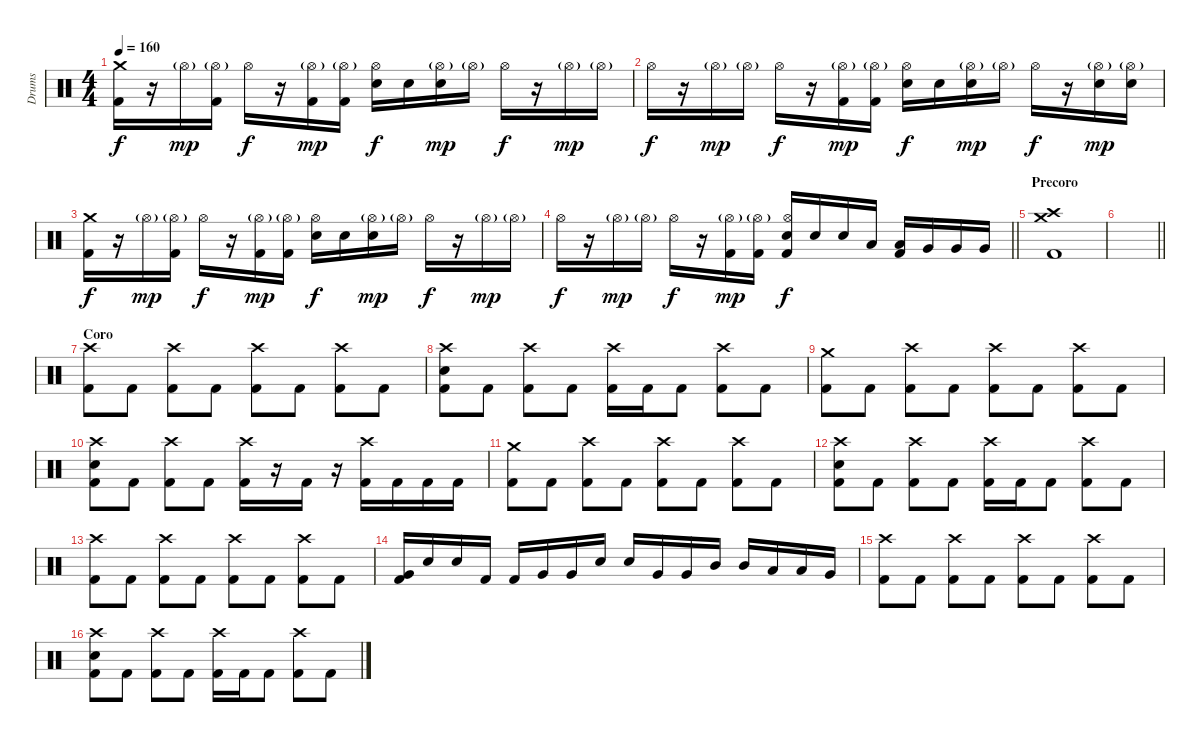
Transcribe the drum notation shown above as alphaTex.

\track ("Drums" "Drums") {instrument percussion}
\staff {score}
\articulation defaults
\ts (4 4)
\tempo 160
\clef neutral
\ks c
("Crash medium (hit)" "Kick (hit) 2").16{dy f} r.16 "Hi-Hat (open)"{g}.16{dy mp} ("Hi-Hat (open)"{g} "Kick (hit) 2").16 "Hi-Hat (open)".16{dy f} r.16 ("Hi-Hat (open)"{g} "Kick (hit) 2").16{dy mp} ("Hi-Hat (open)"{g} "Kick (hit) 2").16 ("Hi-Hat (open)" "Electric Snare (hit)").16{dy f} "Electric Snare (hit)".16 ("Hi-Hat (open)"{g} "Electric Snare (hit)").16{dy mp} "Hi-Hat (open)"{g}.16 "Hi-Hat (open)".16{dy f} r.16 "Hi-Hat (open)"{g}.16{dy mp} "Hi-Hat (open)"{g}.16 |
"Hi-Hat (open)".16{dy f} r.16 "Hi-Hat (open)"{g}.16{dy mp} "Hi-Hat (open)"{g}.16 "Hi-Hat (open)".16{dy f} r.16 ("Hi-Hat (open)"{g} "Kick (hit) 2").16{dy mp} ("Hi-Hat (open)"{g} "Kick (hit) 2").16 ("Hi-Hat (open)" "Electric Snare (hit)").16{dy f} "Electric Snare (hit)".16 ("Hi-Hat (open)"{g} "Electric Snare (hit)").16{dy mp} "Hi-Hat (open)"{g}.16 "Hi-Hat (open)".16{dy f} r.16 ("Hi-Hat (open)"{g} "Electric Snare (hit)").16{dy mp} ("Hi-Hat (open)"{g} "Electric Snare (hit)").16 |
("Crash medium (hit)" "Kick (hit) 2").16{dy f} r.16 "Hi-Hat (open)"{g}.16{dy mp} ("Hi-Hat (open)"{g} "Kick (hit) 2").16 "Hi-Hat (open)".16{dy f} r.16 ("Hi-Hat (open)"{g} "Kick (hit) 2").16{dy mp} ("Hi-Hat (open)"{g} "Kick (hit) 2").16 ("Hi-Hat (open)" "Electric Snare (hit)").16{dy f} "Electric Snare (hit)".16 ("Hi-Hat (open)"{g} "Electric Snare (hit)").16{dy mp} "Hi-Hat (open)"{g}.16 "Hi-Hat (open)".16{dy f} r.16 "Hi-Hat (open)"{g}.16{dy mp} "Hi-Hat (open)"{g}.16 |
\barLineRight lightlight "Hi-Hat (open)".16{dy f}
r.16 "Hi-Hat (open)"{g}.16{dy mp} "Hi-Hat (open)"{g}.16 "Hi-Hat (open)".16{dy f} r.16 ("Hi-Hat (open)"{g} "Kick (hit) 2").16{dy mp} ("Hi-Hat (open)"{g} "Kick (hit) 2").16 ("Hi-Hat (open)" "Electric Snare (hit)" "Kick (hit) 2").16{dy f} "Electric Snare (hit)".16 "Electric Snare (hit)".16 "Low Tom (hit)".16 ("Low Tom (hit)" "Kick (hit) 2").16 "Very Low Tom (hit)".16 "Very Low Tom (hit)".16 "Very Low Tom (hit)".16 |
\section ("" "Precoro")
("Crash medium (hit)" "Crash high (hit)" "Kick (hit) 2").1 |
\barLineRight lightlight
|
\section ("" "Coro")
("Crash high (hit)" "Kick (hit) 2").8 "Kick (hit) 2".8 ("Crash high (hit)" "Kick (hit) 2").8 "Kick (hit) 2".8 ("Crash high (hit)" "Kick (hit) 2").8 "Kick (hit) 2".8 ("Crash high (hit)" "Kick (hit) 2").8 "Kick (hit) 2".8 |
("Crash high (hit)" "Electric Snare (hit)" "Kick (hit) 2").8 "Kick (hit) 2".8 ("Crash high (hit)" "Kick (hit) 2").8 "Kick (hit) 2".8 ("Crash high (hit)" "Kick (hit) 2").16 "Kick (hit) 2".16 "Kick (hit) 2".8 ("Crash high (hit)" "Kick (hit) 2").8 "Kick (hit) 2".8 |
("Crash medium (hit)" "Kick (hit) 2").8 "Kick (hit) 2".8 ("Crash high (hit)" "Kick (hit) 2").8 "Kick (hit) 2".8 ("Crash high (hit)" "Kick (hit) 2").8 "Kick (hit) 2".8 ("Crash high (hit)" "Kick (hit) 2").8 "Kick (hit) 2".8 |
("Crash high (hit)" "Electric Snare (hit)" "Kick (hit) 2").8 "Kick (hit) 2".8 ("Crash high (hit)" "Kick (hit) 2").8 "Kick (hit) 2".8 ("Crash high (hit)" "Kick (hit) 2").16 r.16 "Kick (hit) 2".16 r.16 ("Crash high (hit)" "Kick (hit) 2").16 "Kick (hit) 2".16 "Kick (hit) 2".16 "Kick (hit) 2".16 |
("Crash medium (hit)" "Kick (hit) 2").8 "Kick (hit) 2".8 ("Crash high (hit)" "Kick (hit) 2").8 "Kick (hit) 2".8 ("Crash high (hit)" "Kick (hit) 2").8 "Kick (hit) 2".8 ("Crash high (hit)" "Kick (hit) 2").8 "Kick (hit) 2".8 |
("Crash high (hit)" "Electric Snare (hit)" "Kick (hit) 2").8 "Kick (hit) 2".8 ("Crash high (hit)" "Kick (hit) 2").8 "Kick (hit) 2".8 ("Crash high (hit)" "Kick (hit) 2").16 "Kick (hit) 2".16 "Kick (hit) 2".8 ("Crash high (hit)" "Kick (hit) 2").8 "Kick (hit) 2".8 |
("Crash high (hit)" "Kick (hit) 2").8 "Kick (hit) 2".8 ("Crash high (hit)" "Kick (hit) 2").8 "Kick (hit) 2".8 ("Crash high (hit)" "Kick (hit) 2").8 "Kick (hit) 2".8 ("Crash high (hit)" "Kick (hit) 2").8 "Kick (hit) 2".8 |
("Very Low Tom (hit)" "Kick (hit) 2").16 "Electric Snare (hit)".16 "Electric Snare (hit)".16 "Kick (hit) 2".16 "Kick (hit) 2".16 "Very Low Tom (hit)".16 "Very Low Tom (hit)".16 "Electric Snare (hit)".16 "Electric Snare (hit)".16 "Very Low Tom (hit)".16 "Very Low Tom (hit)".16 "Mid Tom (hit)".16 "Mid Tom (hit)".16 "Low Tom (hit)".16 "Low Tom (hit)".16 "Very Low Tom (hit)".16 |
("Crash high (hit)" "Kick (hit) 2").8 "Kick (hit) 2".8 ("Crash high (hit)" "Kick (hit) 2").8 "Kick (hit) 2".8 ("Crash high (hit)" "Kick (hit) 2").8 "Kick (hit) 2".8 ("Crash high (hit)" "Kick (hit) 2").8 "Kick (hit) 2".8 |
("Crash high (hit)" "Electric Snare (hit)" "Kick (hit) 2").8 "Kick (hit) 2".8 ("Crash high (hit)" "Kick (hit) 2").8 "Kick (hit) 2".8 ("Crash high (hit)" "Kick (hit) 2").16 "Kick (hit) 2".16 "Kick (hit) 2".8 ("Crash high (hit)" "Kick (hit) 2").8 "Kick (hit) 2".8
